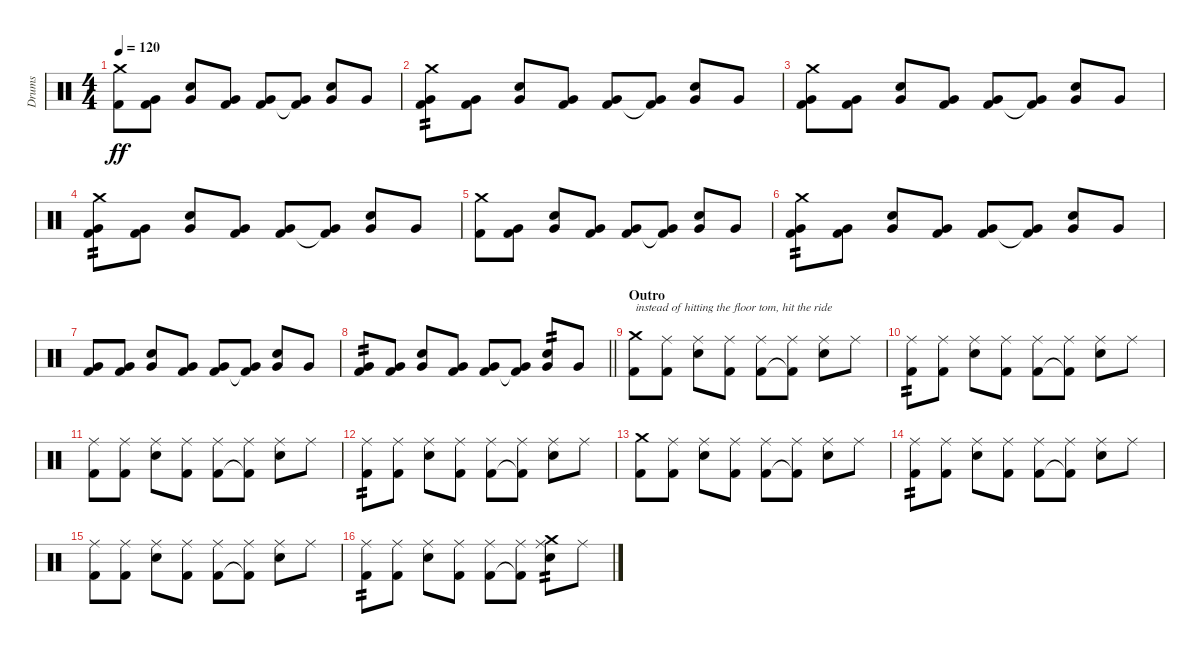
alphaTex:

\track ("Drums" "Drums") {instrument percussion}
\staff {score}
\articulation defaults
\ts (4 4)
\tempo 120
\clef neutral
\ks c
("Crash medium (hit)" "Kick (hit) 2").8{dy ff} ("Very Low Tom (hit)" "Kick (hit) 2").8 ("Very Low Tom (hit)" "Snare (hit) 2").8 ("Very Low Tom (hit)" "Kick (hit) 2").8 ("Very Low Tom (hit)" "Kick (hit) 2").8 ("Very Low Tom (hit)" "Kick (hit) 2"{t}).8 ("Very Low Tom (hit)" "Snare (hit) 2").8 "Very Low Tom (hit)".8 |
("Crash medium (hit)" "Very Low Tom (hit)" "Kick (hit) 2").8{tp 2} ("Very Low Tom (hit)" "Kick (hit) 2").8 ("Very Low Tom (hit)" "Snare (hit) 2").8 ("Very Low Tom (hit)" "Kick (hit) 2").8 ("Very Low Tom (hit)" "Kick (hit) 2").8 ("Very Low Tom (hit)" "Kick (hit) 2"{t}).8 ("Very Low Tom (hit)" "Snare (hit) 2").8 "Very Low Tom (hit)".8 |
("Crash medium (hit)" "Very Low Tom (hit)" "Kick (hit) 2").8 ("Very Low Tom (hit)" "Kick (hit) 2").8 ("Very Low Tom (hit)" "Snare (hit) 2").8 ("Very Low Tom (hit)" "Kick (hit) 2").8 ("Very Low Tom (hit)" "Kick (hit) 2").8 ("Very Low Tom (hit)" "Kick (hit) 2"{t}).8 ("Very Low Tom (hit)" "Snare (hit) 2").8 "Very Low Tom (hit)".8 |
("Crash medium (hit)" "Very Low Tom (hit)" "Kick (hit) 2").8{tp 2} ("Very Low Tom (hit)" "Kick (hit) 2").8 ("Very Low Tom (hit)" "Snare (hit) 2").8 ("Very Low Tom (hit)" "Kick (hit) 2").8 ("Very Low Tom (hit)" "Kick (hit) 2").8 ("Very Low Tom (hit)" "Kick (hit) 2"{t}).8 ("Very Low Tom (hit)" "Snare (hit) 2").8 "Very Low Tom (hit)".8 |
("Crash medium (hit)" "Kick (hit) 2").8 ("Very Low Tom (hit)" "Kick (hit) 2").8 ("Very Low Tom (hit)" "Snare (hit) 2").8 ("Very Low Tom (hit)" "Kick (hit) 2").8 ("Very Low Tom (hit)" "Kick (hit) 2").8 ("Very Low Tom (hit)" "Kick (hit) 2"{t}).8 ("Very Low Tom (hit)" "Snare (hit) 2").8 "Very Low Tom (hit)".8 |
("Crash medium (hit)" "Very Low Tom (hit)" "Kick (hit) 2").8{tp 2} ("Very Low Tom (hit)" "Kick (hit) 2").8 ("Very Low Tom (hit)" "Snare (hit) 2").8 ("Very Low Tom (hit)" "Kick (hit) 2").8 ("Very Low Tom (hit)" "Kick (hit) 2").8 ("Very Low Tom (hit)" "Kick (hit) 2"{t}).8 ("Very Low Tom (hit)" "Snare (hit) 2").8 "Very Low Tom (hit)".8 |
("Very Low Tom (hit)" "Kick (hit) 2").8 ("Very Low Tom (hit)" "Kick (hit) 2").8 ("Very Low Tom (hit)" "Snare (hit) 2").8 ("Very Low Tom (hit)" "Kick (hit) 2").8 ("Very Low Tom (hit)" "Kick (hit) 2").8 ("Very Low Tom (hit)" "Kick (hit) 2"{t}).8 ("Very Low Tom (hit)" "Snare (hit) 2").8 "Very Low Tom (hit)".8 |
\barLineRight lightlight
("Very Low Tom (hit)" "Kick (hit) 2").8{tp 2} ("Very Low Tom (hit)" "Kick (hit) 2").8 ("Very Low Tom (hit)" "Snare (hit) 2").8 ("Very Low Tom (hit)" "Kick (hit) 2").8 ("Very Low Tom (hit)" "Kick (hit) 2").8 ("Very Low Tom (hit)" "Kick (hit) 2"{t}).8 ("Very Low Tom (hit)" "Snare (hit) 2").8{tp 2} "Very Low Tom (hit)".8 |
\section ("" "Outro")
("Crash medium (hit)" "Kick (hit) 2").8{txt "instead of hitting the floor tom, hit the ride "} ("Ride (middle)" "Kick (hit) 2").8 ("Ride (middle)" "Snare (hit) 2").8 ("Ride (middle)" "Kick (hit) 2").8 ("Ride (middle)" "Kick (hit) 2").8 ("Ride (middle)" "Kick (hit) 2"{t}).8 ("Ride (middle)" "Snare (hit) 2").8 "Ride (middle)".8 |
("Ride (middle)" "Kick (hit) 2").8{tp 2} ("Ride (middle)" "Kick (hit) 2").8 ("Ride (middle)" "Snare (hit) 2").8 ("Ride (middle)" "Kick (hit) 2").8 ("Ride (middle)" "Kick (hit) 2").8 ("Ride (middle)" "Kick (hit) 2"{t}).8 ("Ride (middle)" "Snare (hit) 2").8 "Ride (middle)".8 |
("Ride (middle)" "Kick (hit) 2").8 ("Ride (middle)" "Kick (hit) 2").8 ("Ride (middle)" "Snare (hit) 2").8 ("Ride (middle)" "Kick (hit) 2").8 ("Ride (middle)" "Kick (hit) 2").8 ("Ride (middle)" "Kick (hit) 2"{t}).8 ("Ride (middle)" "Snare (hit) 2").8 "Ride (middle)".8 |
("Ride (middle)" "Kick (hit) 2").8{tp 2} ("Ride (middle)" "Kick (hit) 2").8 ("Ride (middle)" "Snare (hit) 2").8 ("Ride (middle)" "Kick (hit) 2").8 ("Ride (middle)" "Kick (hit) 2").8 ("Ride (middle)" "Kick (hit) 2"{t}).8 ("Ride (middle)" "Snare (hit) 2").8 "Ride (middle)".8 |
("Crash medium (hit)" "Kick (hit) 2").8 ("Ride (middle)" "Kick (hit) 2").8 ("Ride (middle)" "Snare (hit) 2").8 ("Ride (middle)" "Kick (hit) 2").8 ("Ride (middle)" "Kick (hit) 2").8 ("Ride (middle)" "Kick (hit) 2"{t}).8 ("Ride (middle)" "Snare (hit) 2").8 "Ride (middle)".8 |
("Ride (middle)" "Kick (hit) 2").8{tp 2} ("Ride (middle)" "Kick (hit) 2").8 ("Ride (middle)" "Snare (hit) 2").8 ("Ride (middle)" "Kick (hit) 2").8 ("Ride (middle)" "Kick (hit) 2").8 ("Ride (middle)" "Kick (hit) 2"{t}).8 ("Ride (middle)" "Snare (hit) 2").8 "Ride (middle)".8 |
("Ride (middle)" "Kick (hit) 2").8 ("Ride (middle)" "Kick (hit) 2").8 ("Ride (middle)" "Snare (hit) 2").8 ("Ride (middle)" "Kick (hit) 2").8 ("Ride (middle)" "Kick (hit) 2").8 ("Ride (middle)" "Kick (hit) 2"{t}).8 ("Ride (middle)" "Snare (hit) 2").8 "Ride (middle)".8 |
("Ride (middle)" "Kick (hit) 2").8{tp 2} ("Ride (middle)" "Kick (hit) 2").8 ("Ride (middle)" "Snare (hit) 2").8 ("Ride (middle)" "Kick (hit) 2").8 ("Ride (middle)" "Kick (hit) 2").8 ("Ride (middle)" "Kick (hit) 2"{t}).8 ("Crash medium (hit)" "Ride (middle)" "Snare (hit) 2").8{tp 2} "Ride (middle)".8
